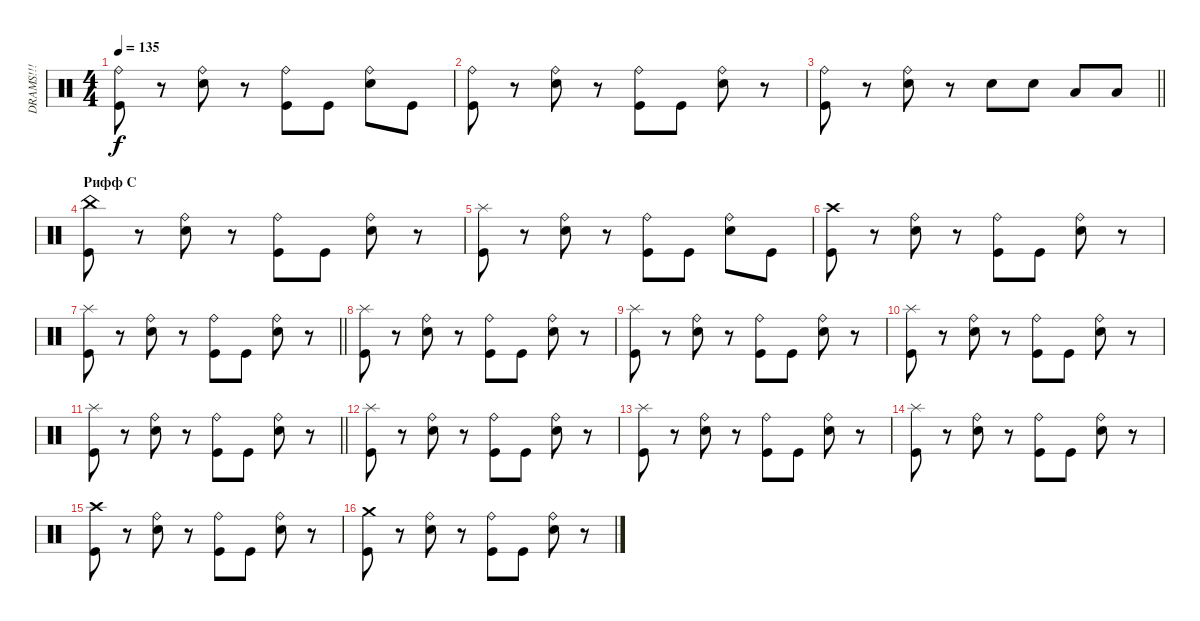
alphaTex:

\track ("DRAMS!!!" "DRAMS!!!") {instrument percussion}
\staff {score}
\articulation defaults
\ts (4 4)
\tempo 135
\clef neutral
\ks c
("Kick (hit)" "Ride (bell)").8{dy f} r.8 ("Electric Snare (hit)" "Ride (bell)").8 r.8 ("Kick (hit)" "Ride (bell)").8 "Kick (hit)".8 ("Electric Snare (hit)" "Ride (bell)").8 "Kick (hit)".8 |
("Kick (hit)" "Ride (bell)").8 r.8 ("Electric Snare (hit)" "Ride (bell)").8 r.8 ("Kick (hit)" "Ride (bell)").8 "Kick (hit)".8 ("Electric Snare (hit)" "Ride (bell)").8 r.8 |
\barLineRight lightlight
("Kick (hit)" "Ride (bell)").8 r.8 ("Electric Snare (hit)" "Ride (bell)").8 r.8 "Electric Snare (hit)".8 "Electric Snare (hit)".8 "Low Tom (hit)".8 "Low Tom (hit)".8 |
\section ("" "Рифф С")
("Kick (hit)" "China (hit)").8 r.8 ("Electric Snare (hit)" "Ride (bell)").8 r.8 ("Kick (hit)" "Ride (bell)").8 "Kick (hit)".8 ("Electric Snare (hit)" "Ride (bell)").8 r.8 |
("Kick (hit)" "Splash (hit)").8 r.8 ("Electric Snare (hit)" "Ride (bell)").8 r.8 ("Kick (hit)" "Ride (bell)").8 "Kick (hit)".8 ("Electric Snare (hit)" "Ride (bell)").8 "Kick (hit)".8 |
("Kick (hit)" "Crash high (hit)").8 r.8 ("Electric Snare (hit)" "Ride (bell)").8 r.8 ("Kick (hit)" "Ride (bell)").8 "Kick (hit)".8 ("Electric Snare (hit)" "Ride (bell)").8 r.8 |
\barLineRight lightlight
("Kick (hit)" "Splash (hit)").8 r.8 ("Electric Snare (hit)" "Ride (bell)").8 r.8 ("Kick (hit)" "Ride (bell)").8 "Kick (hit)".8 ("Electric Snare (hit)" "Ride (bell)").8 r.8 |
\section ("" "")
("Kick (hit)" "Splash (hit)").8 r.8 ("Electric Snare (hit)" "Ride (bell)").8 r.8 ("Kick (hit)" "Ride (bell)").8 "Kick (hit)".8 ("Electric Snare (hit)" "Ride (bell)").8 r.8 |
("Kick (hit)" "Splash (hit)").8 r.8 ("Electric Snare (hit)" "Ride (bell)").8 r.8 ("Kick (hit)" "Ride (bell)").8 "Kick (hit)".8 ("Electric Snare (hit)" "Ride (bell)").8 r.8 |
("Kick (hit)" "Splash (hit)").8 r.8 ("Electric Snare (hit)" "Ride (bell)").8 r.8 ("Kick (hit)" "Ride (bell)").8 "Kick (hit)".8 ("Electric Snare (hit)" "Ride (bell)").8 r.8 |
\barLineRight lightlight
("Kick (hit)" "Splash (hit)").8 r.8 ("Electric Snare (hit)" "Ride (bell)").8 r.8 ("Kick (hit)" "Ride (bell)").8 "Kick (hit)".8 ("Electric Snare (hit)" "Ride (bell)").8 r.8 |
("Kick (hit)" "Splash (hit)").8 r.8 ("Electric Snare (hit)" "Ride (bell)").8 r.8 ("Kick (hit)" "Ride (bell)").8 "Kick (hit)".8 ("Electric Snare (hit)" "Ride (bell)").8 r.8 |
("Kick (hit)" "Splash (hit)").8 r.8 ("Electric Snare (hit)" "Ride (bell)").8 r.8 ("Kick (hit)" "Ride (bell)").8 "Kick (hit)".8 ("Electric Snare (hit)" "Ride (bell)").8 r.8 |
("Kick (hit)" "Splash (hit)").8 r.8 ("Electric Snare (hit)" "Ride (bell)").8 r.8 ("Kick (hit)" "Ride (bell)").8 "Kick (hit)".8 ("Electric Snare (hit)" "Ride (bell)").8 r.8 |
("Kick (hit)" "Crash high (hit)").8 r.8 ("Electric Snare (hit)" "Ride (bell)").8 r.8 ("Kick (hit)" "Ride (bell)").8 "Kick (hit)".8 ("Electric Snare (hit)" "Ride (bell)").8 r.8 |
("Kick (hit)" "Crash medium (hit)").8 r.8 ("Electric Snare (hit)" "Ride (bell)").8 r.8 ("Kick (hit)" "Ride (bell)").8 "Kick (hit)".8 ("Electric Snare (hit)" "Ride (bell)").8 r.8
